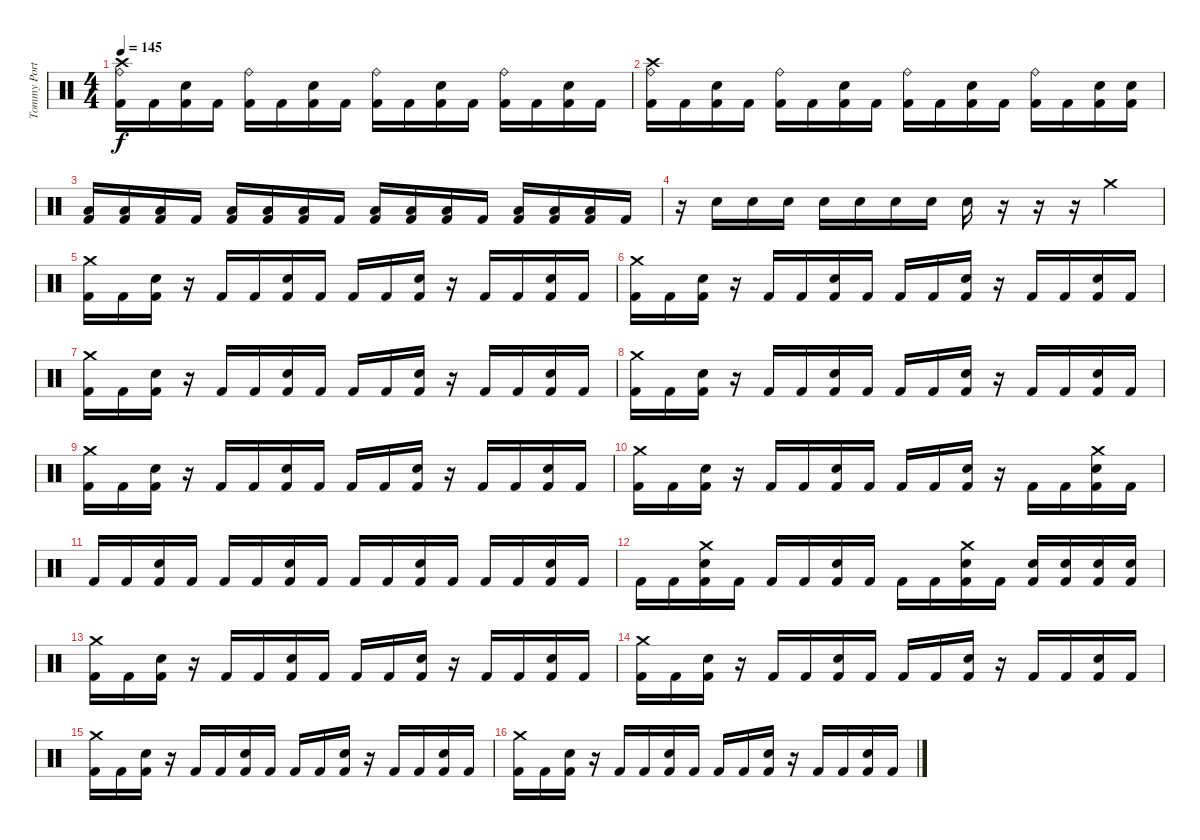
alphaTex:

\track ("Tommy Portino" "Tommy Port") {instrument percussion}
\staff {score}
\articulation defaults
\ts (4 4)
\tempo 145
\clef neutral
\ks c
("Kick (hit) 2" "Ride (bell)" "Crash high (hit)").16{dy f} "Kick (hit) 2".16 ("Kick (hit) 2" "Electric Snare (hit)").16 "Kick (hit) 2".16 ("Kick (hit) 2" "Ride (bell)").16 "Kick (hit) 2".16 ("Kick (hit) 2" "Electric Snare (hit)").16 "Kick (hit) 2".16 ("Kick (hit) 2" "Ride (bell)").16 "Kick (hit) 2".16 ("Kick (hit) 2" "Electric Snare (hit)").16 "Kick (hit) 2".16 ("Kick (hit) 2" "Ride (bell)").16 "Kick (hit) 2".16 ("Kick (hit) 2" "Electric Snare (hit)").16 "Kick (hit) 2".16 |
("Kick (hit) 2" "Ride (bell)" "Crash high (hit)").16 "Kick (hit) 2".16 ("Kick (hit) 2" "Electric Snare (hit)").16 "Kick (hit) 2".16 ("Kick (hit) 2" "Ride (bell)").16 "Kick (hit) 2".16 ("Kick (hit) 2" "Electric Snare (hit)").16 "Kick (hit) 2".16 ("Kick (hit) 2" "Ride (bell)").16 "Kick (hit) 2".16 ("Kick (hit) 2" "Electric Snare (hit)").16 "Kick (hit) 2".16 ("Kick (hit) 2" "Ride (bell)").16 "Kick (hit) 2".16 ("Kick (hit) 2" "Electric Snare (hit)").16 ("Kick (hit) 2" "Electric Snare (hit)").16 |
("Kick (hit) 2" "Low Tom (hit)").16 ("Kick (hit) 2" "Low Tom (hit)").16 ("Kick (hit) 2" "Low Tom (hit)").16 "Kick (hit) 2".16 ("Kick (hit) 2" "Low Tom (hit)").16 ("Kick (hit) 2" "Low Tom (hit)").16 ("Kick (hit) 2" "Low Tom (hit)").16 "Kick (hit) 2".16 ("Kick (hit) 2" "Low Tom (hit)").16 ("Kick (hit) 2" "Low Tom (hit)").16 ("Kick (hit) 2" "Low Tom (hit)").16 "Kick (hit) 2".16 ("Kick (hit) 2" "Low Tom (hit)").16 ("Kick (hit) 2" "Low Tom (hit)").16 ("Kick (hit) 2" "Low Tom (hit)").16 "Kick (hit) 2".16 |
r.16 "Electric Snare (hit)".16 "Electric Snare (hit)".16 "Electric Snare (hit)".16 "Electric Snare (hit)".16 "Electric Snare (hit)".16 "Electric Snare (hit)".16 "Electric Snare (hit)".16 "Electric Snare (hit)".16 r.16 r.16 r.16 "Crash medium (hit)".4 |
("Kick (hit) 2" "Crash medium (hit)").16 "Kick (hit) 2".16 ("Kick (hit) 2" "Electric Snare (hit)").16 r.16 "Kick (hit) 2".16 "Kick (hit) 2".16 ("Kick (hit) 2" "Electric Snare (hit)").16 "Kick (hit) 2".16 "Kick (hit) 2".16 "Kick (hit) 2".16 ("Kick (hit) 2" "Electric Snare (hit)").16 r.16 "Kick (hit) 2".16 "Kick (hit) 2".16 ("Kick (hit) 2" "Electric Snare (hit)").16 "Kick (hit) 2".16 |
("Kick (hit) 2" "Crash medium (hit)").16 "Kick (hit) 2".16 ("Kick (hit) 2" "Electric Snare (hit)").16 r.16 "Kick (hit) 2".16 "Kick (hit) 2".16 ("Kick (hit) 2" "Electric Snare (hit)").16 "Kick (hit) 2".16 "Kick (hit) 2".16 "Kick (hit) 2".16 ("Kick (hit) 2" "Electric Snare (hit)").16 r.16 "Kick (hit) 2".16 "Kick (hit) 2".16 ("Kick (hit) 2" "Electric Snare (hit)").16 "Kick (hit) 2".16 |
("Kick (hit) 2" "Crash medium (hit)").16 "Kick (hit) 2".16 ("Kick (hit) 2" "Electric Snare (hit)").16 r.16 "Kick (hit) 2".16 "Kick (hit) 2".16 ("Kick (hit) 2" "Electric Snare (hit)").16 "Kick (hit) 2".16 "Kick (hit) 2".16 "Kick (hit) 2".16 ("Kick (hit) 2" "Electric Snare (hit)").16 r.16 "Kick (hit) 2".16 "Kick (hit) 2".16 ("Kick (hit) 2" "Electric Snare (hit)").16 "Kick (hit) 2".16 |
("Kick (hit) 2" "Crash medium (hit)").16 "Kick (hit) 2".16 ("Kick (hit) 2" "Electric Snare (hit)").16 r.16 "Kick (hit) 2".16 "Kick (hit) 2".16 ("Kick (hit) 2" "Electric Snare (hit)").16 "Kick (hit) 2".16 "Kick (hit) 2".16 "Kick (hit) 2".16 ("Kick (hit) 2" "Electric Snare (hit)").16 r.16 "Kick (hit) 2".16 "Kick (hit) 2".16 ("Kick (hit) 2" "Electric Snare (hit)").16 "Kick (hit) 2".16 |
("Kick (hit) 2" "Crash medium (hit)").16 "Kick (hit) 2".16 ("Kick (hit) 2" "Electric Snare (hit)").16 r.16 "Kick (hit) 2".16 "Kick (hit) 2".16 ("Kick (hit) 2" "Electric Snare (hit)").16 "Kick (hit) 2".16 "Kick (hit) 2".16 "Kick (hit) 2".16 ("Kick (hit) 2" "Electric Snare (hit)").16 r.16 "Kick (hit) 2".16 "Kick (hit) 2".16 ("Kick (hit) 2" "Electric Snare (hit)").16 "Kick (hit) 2".16 |
("Kick (hit) 2" "Crash medium (hit)").16 "Kick (hit) 2".16 ("Kick (hit) 2" "Electric Snare (hit)").16 r.16 "Kick (hit) 2".16 "Kick (hit) 2".16 ("Kick (hit) 2" "Electric Snare (hit)").16 "Kick (hit) 2".16 "Kick (hit) 2".16 "Kick (hit) 2".16 ("Kick (hit) 2" "Electric Snare (hit)").16 r.16 "Kick (hit) 2".16 "Kick (hit) 2".16 ("Kick (hit) 2" "Crash medium (hit)" "Electric Snare (hit)").16 "Kick (hit) 2".16 |
"Kick (hit) 2".16 "Kick (hit) 2".16 ("Kick (hit) 2" "Electric Snare (hit)").16 "Kick (hit) 2".16 "Kick (hit) 2".16 "Kick (hit) 2".16 ("Kick (hit) 2" "Electric Snare (hit)").16 "Kick (hit) 2".16 "Kick (hit) 2".16 "Kick (hit) 2".16 ("Kick (hit) 2" "Electric Snare (hit)").16 "Kick (hit) 2".16 "Kick (hit) 2".16 "Kick (hit) 2".16 ("Kick (hit) 2" "Electric Snare (hit)").16 "Kick (hit) 2".16 |
"Kick (hit) 2".16 "Kick (hit) 2".16 ("Kick (hit) 2" "Crash medium (hit)" "Electric Snare (hit)").16 "Kick (hit) 2".16 "Kick (hit) 2".16 "Kick (hit) 2".16 ("Kick (hit) 2" "Electric Snare (hit)").16 "Kick (hit) 2".16 "Kick (hit) 2".16 "Kick (hit) 2".16 ("Kick (hit) 2" "Crash medium (hit)" "Electric Snare (hit)").16 "Kick (hit) 2".16 ("Kick (hit) 2" "Electric Snare (hit)").16 ("Kick (hit) 2" "Electric Snare (hit)").16 ("Kick (hit) 2" "Electric Snare (hit)").16 ("Kick (hit) 2" "Electric Snare (hit)").16 |
("Kick (hit) 2" "Crash medium (hit)").16 "Kick (hit) 2".16 ("Kick (hit) 2" "Electric Snare (hit)").16 r.16 "Kick (hit) 2".16 "Kick (hit) 2".16 ("Kick (hit) 2" "Electric Snare (hit)").16 "Kick (hit) 2".16 "Kick (hit) 2".16 "Kick (hit) 2".16 ("Kick (hit) 2" "Electric Snare (hit)").16 r.16 "Kick (hit) 2".16 "Kick (hit) 2".16 ("Kick (hit) 2" "Electric Snare (hit)").16 "Kick (hit) 2".16 |
("Kick (hit) 2" "Crash medium (hit)").16 "Kick (hit) 2".16 ("Kick (hit) 2" "Electric Snare (hit)").16 r.16 "Kick (hit) 2".16 "Kick (hit) 2".16 ("Kick (hit) 2" "Electric Snare (hit)").16 "Kick (hit) 2".16 "Kick (hit) 2".16 "Kick (hit) 2".16 ("Kick (hit) 2" "Electric Snare (hit)").16 r.16 "Kick (hit) 2".16 "Kick (hit) 2".16 ("Kick (hit) 2" "Electric Snare (hit)").16 "Kick (hit) 2".16 |
("Kick (hit) 2" "Crash medium (hit)").16 "Kick (hit) 2".16 ("Kick (hit) 2" "Electric Snare (hit)").16 r.16 "Kick (hit) 2".16 "Kick (hit) 2".16 ("Kick (hit) 2" "Electric Snare (hit)").16 "Kick (hit) 2".16 "Kick (hit) 2".16 "Kick (hit) 2".16 ("Kick (hit) 2" "Electric Snare (hit)").16 r.16 "Kick (hit) 2".16 "Kick (hit) 2".16 ("Kick (hit) 2" "Electric Snare (hit)").16 "Kick (hit) 2".16 |
("Kick (hit) 2" "Crash medium (hit)").16 "Kick (hit) 2".16 ("Kick (hit) 2" "Electric Snare (hit)").16 r.16 "Kick (hit) 2".16 "Kick (hit) 2".16 ("Kick (hit) 2" "Electric Snare (hit)").16 "Kick (hit) 2".16 "Kick (hit) 2".16 "Kick (hit) 2".16 ("Kick (hit) 2" "Electric Snare (hit)").16 r.16 "Kick (hit) 2".16 "Kick (hit) 2".16 ("Kick (hit) 2" "Electric Snare (hit)").16 "Kick (hit) 2".16
